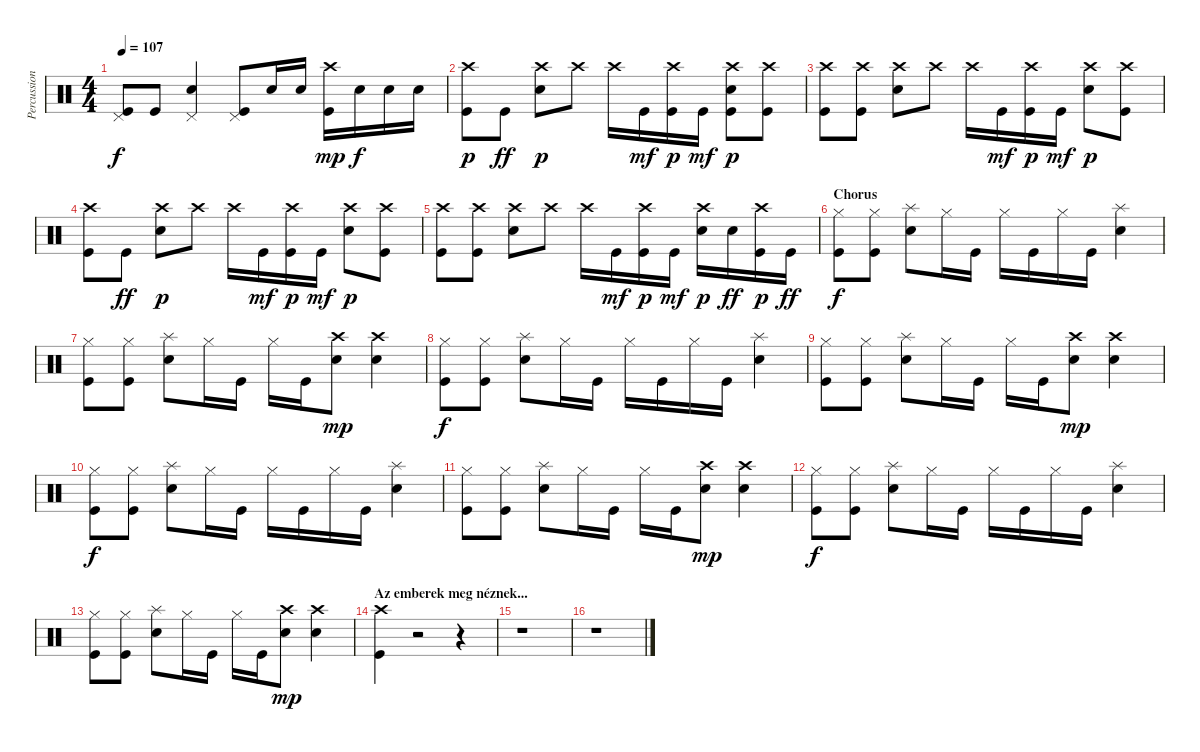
\track ("Percussion" "Percussion") {instrument percussion}
\staff {score}
\articulation defaults
\ts (4 4)
\tempo 107
\clef neutral
\ks c
("Kick (hit)" "Pedal Hi-Hat (hit)").8{dy f} "Kick (hit)".8 ("Electric Snare (hit)" "Pedal Hi-Hat (hit)").4 ("Kick (hit)" "Pedal Hi-Hat (hit)").8 "Electric Snare (hit)".16 "Electric Snare (hit)".16 ("Kick (hit)" "Crash high (hit)").16{dy mp} "Electric Snare (hit)".16{dy f} "Electric Snare (hit)".16 "Electric Snare (hit)".16 |
("Kick (hit)" "Crash high (hit)").8{dy p} "Kick (hit)".8{dy ff} ("Electric Snare (hit)" "Crash high (hit)").8{dy p} "Crash high (hit)".8 "Crash high (hit)".16 "Kick (hit)".16{dy mf} ("Kick (hit)" "Crash high (hit)").16{dy p} "Kick (hit)".16{dy mf} ("Electric Snare (hit)" "Kick (hit)" "Crash high (hit)").8{dy p} ("Kick (hit)" "Crash high (hit)").8 |
("Kick (hit)" "Crash high (hit)").8 ("Kick (hit)" "Crash high (hit)").8 ("Electric Snare (hit)" "Crash high (hit)").8 "Crash high (hit)".8 "Crash high (hit)".16 "Kick (hit)".16{dy mf} ("Kick (hit)" "Crash high (hit)").16{dy p} "Kick (hit)".16{dy mf} ("Electric Snare (hit)" "Crash high (hit)").8{dy p} ("Kick (hit)" "Crash high (hit)").8 |
("Kick (hit)" "Crash high (hit)").8 "Kick (hit)".8{dy ff} ("Electric Snare (hit)" "Crash high (hit)").8{dy p} "Crash high (hit)".8 "Crash high (hit)".16 "Kick (hit)".16{dy mf} ("Kick (hit)" "Crash high (hit)").16{dy p} "Kick (hit)".16{dy mf} ("Electric Snare (hit)" "Crash high (hit)").8{dy p} ("Kick (hit)" "Crash high (hit)").8 |
("Kick (hit)" "Crash high (hit)").8 ("Kick (hit)" "Crash high (hit)").8 ("Electric Snare (hit)" "Crash high (hit)").8 "Crash high (hit)".8 "Crash high (hit)".16 "Kick (hit)".16{dy mf} ("Kick (hit)" "Crash high (hit)").16{dy p} "Kick (hit)".16{dy mf} ("Electric Snare (hit)" "Crash high (hit)").16{dy p} "Electric Snare (hit)".16{dy ff} ("Kick (hit)" "Crash high (hit)").16{dy p} "Kick (hit)".16{dy ff} |
\section ("" "Chorus")
("Kick (hit)" "Hi-Hat (closed)").8{dy f} ("Kick (hit)" "Hi-Hat (closed)").8 ("Electric Snare (hit)" "Splash (hit)").8 "Hi-Hat (closed)".16 "Kick (hit)".16 "Hi-Hat (closed)".16 "Kick (hit)".16 "Hi-Hat (closed)".16 "Kick (hit)".16 ("Electric Snare (hit)" "Splash (hit)").4 |
("Kick (hit)" "Hi-Hat (closed)").8 ("Kick (hit)" "Hi-Hat (closed)").8 ("Electric Snare (hit)" "Splash (hit)").8 "Hi-Hat (closed)".16 "Kick (hit)".16 "Hi-Hat (closed)".16 "Kick (hit)".16 ("Electric Snare (hit)" "Crash high (hit)").8{dy mp} ("Electric Snare (hit)" "Crash high (hit)").4 |
("Kick (hit)" "Hi-Hat (closed)").8{dy f} ("Kick (hit)" "Hi-Hat (closed)").8 ("Electric Snare (hit)" "Splash (hit)").8 "Hi-Hat (closed)".16 "Kick (hit)".16 "Hi-Hat (closed)".16 "Kick (hit)".16 "Hi-Hat (closed)".16 "Kick (hit)".16 ("Electric Snare (hit)" "Splash (hit)").4 |
("Kick (hit)" "Hi-Hat (closed)").8 ("Kick (hit)" "Hi-Hat (closed)").8 ("Electric Snare (hit)" "Splash (hit)").8 "Hi-Hat (closed)".16 "Kick (hit)".16 "Hi-Hat (closed)".16 "Kick (hit)".16 ("Electric Snare (hit)" "Crash high (hit)").8{dy mp} ("Electric Snare (hit)" "Crash high (hit)").4 |
("Kick (hit)" "Hi-Hat (closed)").8{dy f} ("Kick (hit)" "Hi-Hat (closed)").8 ("Electric Snare (hit)" "Splash (hit)").8 "Hi-Hat (closed)".16 "Kick (hit)".16 "Hi-Hat (closed)".16 "Kick (hit)".16 "Hi-Hat (closed)".16 "Kick (hit)".16 ("Electric Snare (hit)" "Splash (hit)").4 |
("Kick (hit)" "Hi-Hat (closed)").8 ("Kick (hit)" "Hi-Hat (closed)").8 ("Electric Snare (hit)" "Splash (hit)").8 "Hi-Hat (closed)".16 "Kick (hit)".16 "Hi-Hat (closed)".16 "Kick (hit)".16 ("Electric Snare (hit)" "Crash high (hit)").8{dy mp} ("Electric Snare (hit)" "Crash high (hit)").4 |
("Kick (hit)" "Hi-Hat (closed)").8{dy f} ("Kick (hit)" "Hi-Hat (closed)").8 ("Electric Snare (hit)" "Splash (hit)").8 "Hi-Hat (closed)".16 "Kick (hit)".16 "Hi-Hat (closed)".16 "Kick (hit)".16 "Hi-Hat (closed)".16 "Kick (hit)".16 ("Electric Snare (hit)" "Splash (hit)").4 |
("Kick (hit)" "Hi-Hat (closed)").8 ("Kick (hit)" "Hi-Hat (closed)").8 ("Electric Snare (hit)" "Splash (hit)").8 "Hi-Hat (closed)".16 "Kick (hit)".16 "Hi-Hat (closed)".16 "Kick (hit)".16 ("Electric Snare (hit)" "Crash high (hit)").8{dy mp} ("Electric Snare (hit)" "Crash high (hit)").4 |
\section ("" "Az emberek meg néznek...")
("Kick (hit)" "Crash high (hit)").4 r.2 r.4 |
r.1 |
r.1
